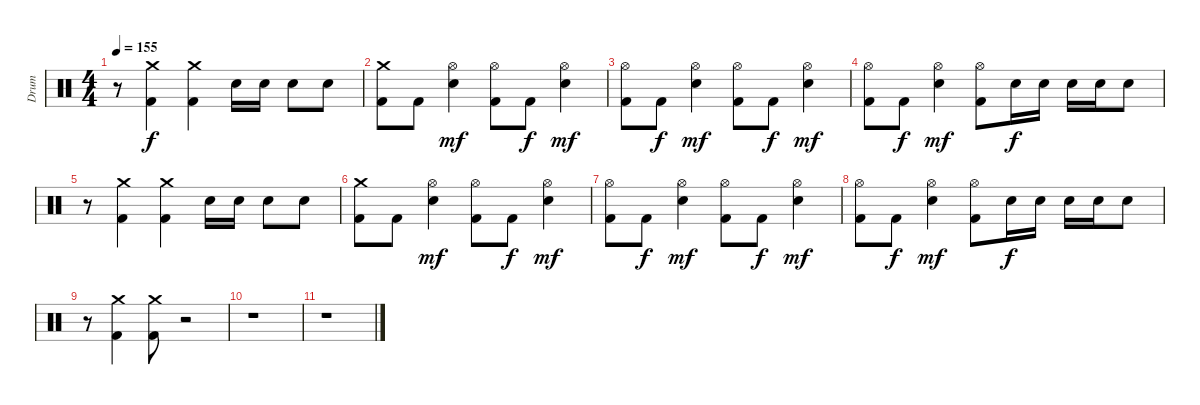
\track ("Drum" "Drum") {instrument percussion}
\staff {score}
\articulation defaults
\ts (4 4)
\tempo 155
\clef neutral
\ks c
r.8{dy f} ("Crash medium (hit)" "Kick (hit) 2").4 ("Crash medium (hit)" "Kick (hit) 2").4 "Snare (hit) 2".16 "Snare (hit) 2".16 "Snare (hit) 2".8 "Snare (hit) 2".8 |
("Crash medium (hit)" "Kick (hit) 2").8 "Kick (hit) 2".8 ("Hi-Hat (open)" "Snare (hit) 2").4{dy mf} ("Hi-Hat (open)" "Kick (hit) 2").8 "Kick (hit) 2".8{dy f} ("Hi-Hat (open)" "Snare (hit) 2").4{dy mf} |
("Hi-Hat (open)" "Kick (hit) 2").8 "Kick (hit) 2".8{dy f} ("Hi-Hat (open)" "Snare (hit) 2").4{dy mf} ("Hi-Hat (open)" "Kick (hit) 2").8 "Kick (hit) 2".8{dy f} ("Hi-Hat (open)" "Snare (hit) 2").4{dy mf} |
("Hi-Hat (open)" "Kick (hit) 2").8 "Kick (hit) 2".8{dy f} ("Hi-Hat (open)" "Snare (hit) 2").4{dy mf} ("Hi-Hat (open)" "Kick (hit) 2").8 "Snare (hit) 2".16{dy f} "Snare (hit) 2".16 "Snare (hit) 2".16 "Snare (hit) 2".16 "Snare (hit) 2".8 |
r.8 ("Crash medium (hit)" "Kick (hit) 2").4 ("Crash medium (hit)" "Kick (hit) 2").4 "Snare (hit) 2".16 "Snare (hit) 2".16 "Snare (hit) 2".8 "Snare (hit) 2".8 |
("Crash medium (hit)" "Kick (hit) 2").8 "Kick (hit) 2".8 ("Hi-Hat (open)" "Snare (hit) 2").4{dy mf} ("Hi-Hat (open)" "Kick (hit) 2").8 "Kick (hit) 2".8{dy f} ("Hi-Hat (open)" "Snare (hit) 2").4{dy mf} |
("Hi-Hat (open)" "Kick (hit) 2").8 "Kick (hit) 2".8{dy f} ("Hi-Hat (open)" "Snare (hit) 2").4{dy mf} ("Hi-Hat (open)" "Kick (hit) 2").8 "Kick (hit) 2".8{dy f} ("Hi-Hat (open)" "Snare (hit) 2").4{dy mf} |
("Hi-Hat (open)" "Kick (hit) 2").8 "Kick (hit) 2".8{dy f} ("Hi-Hat (open)" "Snare (hit) 2").4{dy mf} ("Hi-Hat (open)" "Kick (hit) 2").8 "Snare (hit) 2".16{dy f} "Snare (hit) 2".16 "Snare (hit) 2".16 "Snare (hit) 2".16 "Snare (hit) 2".8 |
r.8 ("Crash medium (hit)" "Kick (hit) 2").4 ("Crash medium (hit)" "Kick (hit) 2").8 r.2 |
r.1 |
r.1
